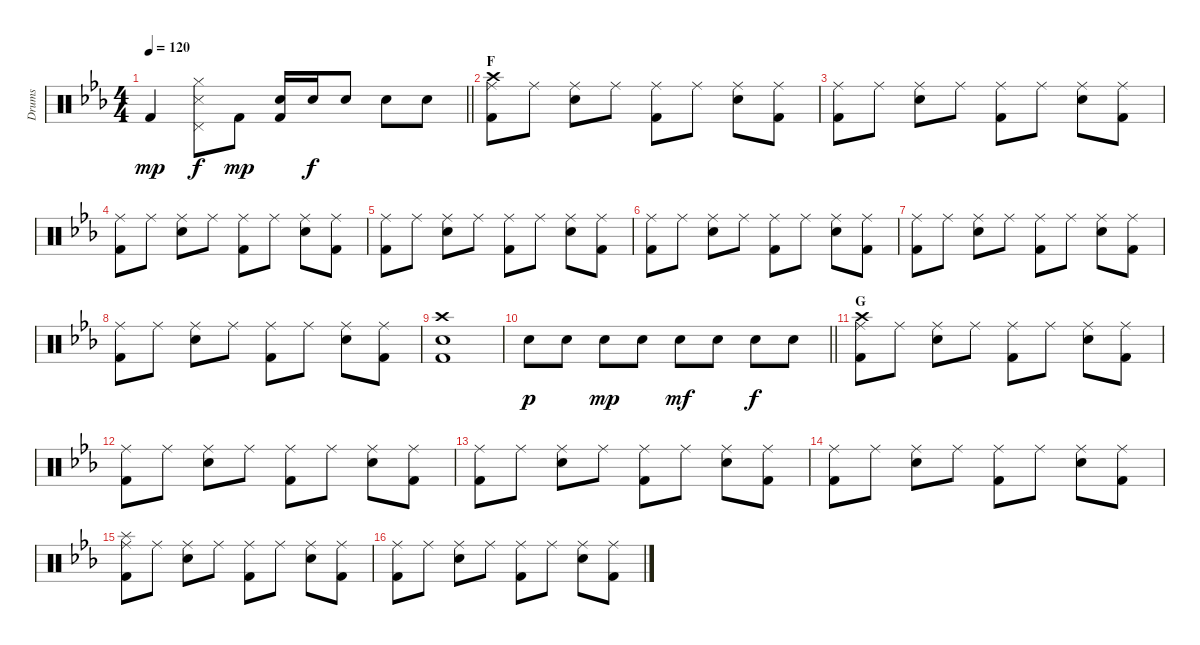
\track ("Drums" "Drums") {instrument percussion}
\staff {score}
\articulation defaults
\ts (4 4)
\tempo 120
\clef neutral
\barLineRight lightlight
\ks eb "Kick (hit) 2".4{dy mp}
("Hi-Hat (closed)" "Metronome (hit)" "Pedal Hi-Hat (hit)").8{dy f} "Kick (hit) 2".8{dy mp} ("Electric Snare (hit)" "Kick (hit) 2").16 "Electric Snare (hit)".16{dy f} "Electric Snare (hit)".8 "Electric Snare (hit)".8 "Electric Snare (hit)".8 |
\section ("" "F")
("Crash high (hit)" "Ride (middle)" "Kick (hit) 2").8 "Ride (middle)".8 ("Ride (middle)" "Electric Snare (hit)").8 "Ride (middle)".8 ("Ride (middle)" "Kick (hit) 2").8 "Ride (middle)".8 ("Ride (middle)" "Electric Snare (hit)").8 ("Ride (middle)" "Kick (hit) 2").8 |
("Ride (middle)" "Kick (hit) 2").8 "Ride (middle)".8 ("Ride (middle)" "Electric Snare (hit)").8 "Ride (middle)".8 ("Ride (middle)" "Kick (hit) 2").8 "Ride (middle)".8 ("Ride (middle)" "Electric Snare (hit)").8 ("Ride (middle)" "Kick (hit) 2").8 |
("Ride (middle)" "Kick (hit) 2").8 "Ride (middle)".8 ("Ride (middle)" "Electric Snare (hit)").8 "Ride (middle)".8 ("Ride (middle)" "Kick (hit) 2").8 "Ride (middle)".8 ("Ride (middle)" "Electric Snare (hit)").8 ("Ride (middle)" "Kick (hit) 2").8 |
("Ride (middle)" "Kick (hit) 2").8 "Ride (middle)".8 ("Ride (middle)" "Electric Snare (hit)").8 "Ride (middle)".8 ("Ride (middle)" "Kick (hit) 2").8 "Ride (middle)".8 ("Ride (middle)" "Electric Snare (hit)").8 ("Ride (middle)" "Kick (hit) 2").8 |
("Ride (middle)" "Kick (hit) 2").8 "Ride (middle)".8 ("Ride (middle)" "Electric Snare (hit)").8 "Ride (middle)".8 ("Ride (middle)" "Kick (hit) 2").8 "Ride (middle)".8 ("Ride (middle)" "Electric Snare (hit)").8 ("Ride (middle)" "Kick (hit) 2").8 |
("Ride (middle)" "Kick (hit) 2").8 "Ride (middle)".8 ("Ride (middle)" "Electric Snare (hit)").8 "Ride (middle)".8 ("Ride (middle)" "Kick (hit) 2").8 "Ride (middle)".8 ("Ride (middle)" "Electric Snare (hit)").8 ("Ride (middle)" "Kick (hit) 2").8 |
("Ride (middle)" "Kick (hit) 2").8 "Ride (middle)".8 ("Ride (middle)" "Electric Snare (hit)").8 "Ride (middle)".8 ("Ride (middle)" "Kick (hit) 2").8 "Ride (middle)".8 ("Ride (middle)" "Electric Snare (hit)").8 ("Ride (middle)" "Kick (hit) 2").8 |
("Crash high (hit)" "Electric Snare (hit)" "Kick (hit) 2").1 |
\barLineRight lightlight "Electric Snare (hit)".8{dy p} "Electric Snare (hit)".8 "Electric Snare (hit)".8{dy mp} "Electric Snare (hit)".8 "Electric Snare (hit)".8{dy mf} "Electric Snare (hit)".8 "Electric Snare (hit)".8{dy f} "Electric Snare (hit)".8
|
\section ("" "G")
("Crash high (hit)" "Ride (middle)" "Kick (hit) 2").8 "Ride (middle)".8 ("Ride (middle)" "Electric Snare (hit)").8 "Ride (middle)".8 ("Ride (middle)" "Kick (hit) 2").8 "Ride (middle)".8 ("Ride (middle)" "Electric Snare (hit)").8 ("Ride (middle)" "Kick (hit) 2").8 |
("Ride (middle)" "Kick (hit) 2").8 "Ride (middle)".8 ("Ride (middle)" "Electric Snare (hit)").8 "Ride (middle)".8 ("Ride (middle)" "Kick (hit) 2").8 "Ride (middle)".8 ("Ride (middle)" "Electric Snare (hit)").8 ("Ride (middle)" "Kick (hit) 2").8 |
("Ride (middle)" "Kick (hit) 2").8 "Ride (middle)".8 ("Ride (middle)" "Electric Snare (hit)").8 "Ride (middle)".8 ("Ride (middle)" "Kick (hit) 2").8 "Ride (middle)".8 ("Ride (middle)" "Electric Snare (hit)").8 ("Ride (middle)" "Kick (hit) 2").8 |
("Ride (middle)" "Kick (hit) 2").8 "Ride (middle)".8 ("Ride (middle)" "Electric Snare (hit)").8 "Ride (middle)".8 ("Ride (middle)" "Kick (hit) 2").8 "Ride (middle)".8 ("Ride (middle)" "Electric Snare (hit)").8 ("Ride (middle)" "Kick (hit) 2").8 |
("Splash (hit)" "Ride (middle)" "Kick (hit) 2").8 "Ride (middle)".8 ("Ride (middle)" "Electric Snare (hit)").8 "Ride (middle)".8 ("Ride (middle)" "Kick (hit) 2").8 "Ride (middle)".8 ("Ride (middle)" "Electric Snare (hit)").8 ("Ride (middle)" "Kick (hit) 2").8 |
("Ride (middle)" "Kick (hit) 2").8 "Ride (middle)".8 ("Ride (middle)" "Electric Snare (hit)").8 "Ride (middle)".8 ("Ride (middle)" "Kick (hit) 2").8 "Ride (middle)".8 ("Ride (middle)" "Electric Snare (hit)").8 ("Ride (middle)" "Kick (hit) 2").8
